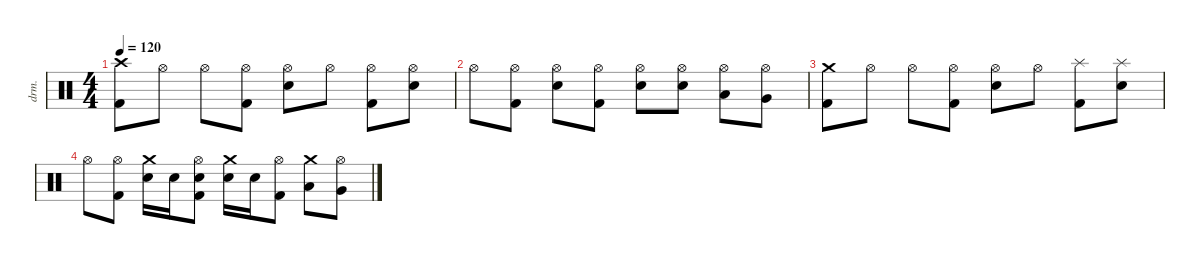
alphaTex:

\defaultSystemsLayout 4
\hideDynamics
\bracketExtendMode nobrackets
\track ("Drumkit" "drm.") {instrument percussion}
\staff {score}
\articulation defaults
\ts (4 4)
\tempo 120
\clef neutral
\ks c
("Crash high (hit)" "Kick (hit) 2").8{dy mf beam Down} "Hi-Hat (open)".8{beam Down} "Hi-Hat (open)".8{beam Down} ("Hi-Hat (open)" "Kick (hit) 2").8{beam Down} ("Hi-Hat (open)" "Snare (hit) 2").8{beam Down} "Hi-Hat (open)".8{beam Down} ("Hi-Hat (open)" "Kick (hit) 2").8{beam Down} ("Hi-Hat (open)" "Snare (hit) 2").8{beam Down} |
"Hi-Hat (open)".8{beam Down} ("Hi-Hat (open)" "Kick (hit) 2").8{beam Down} ("Hi-Hat (open)" "Snare (hit) 2").8{beam Down} ("Hi-Hat (open)" "Kick (hit) 2").8{beam Down} ("Hi-Hat (open)" "Snare (hit) 2").8{beam Down} ("Hi-Hat (open)" "Snare (hit) 2").8{beam Down} ("Hi-Hat (open)" "Low Tom (hit)").8{beam Down} ("Hi-Hat (open)" "Very Low Tom (hit)").8{beam Down} |
("Crash medium (hit)" "Kick (hit) 2").8{beam Down} "Hi-Hat (open)".8{beam Down} "Hi-Hat (open)".8{beam Down} ("Hi-Hat (open)" "Kick (hit) 2").8{beam Down} ("Hi-Hat (open)" "Snare (hit) 2").8{beam Down} "Hi-Hat (open)".8{beam Down} ("Splash (hit)" "Kick (hit) 2").8{beam Down} ("Splash (hit)" "Snare (hit) 2").8{beam Down} |
"Hi-Hat (open)".8{beam Down} ("Hi-Hat (open)" "Kick (hit) 2").8{beam Down} ("Crash medium (hit)" "Snare (hit) 2").16{beam Down} "Snare (hit) 2".16{beam Down} ("Hi-Hat (open)" "Kick (hit) 2" "Snare (hit) 2").8{beam Down} ("Crash medium (hit)" "Snare (hit) 2").16{beam Down} "Snare (hit) 2".16{beam Down} ("Hi-Hat (open)" "Kick (hit) 2").8{beam Down} ("Crash medium (hit)" "Low Tom (hit)").8{beam Down} ("Hi-Hat (open)" "Very Low Tom (hit)").8{beam Down}
